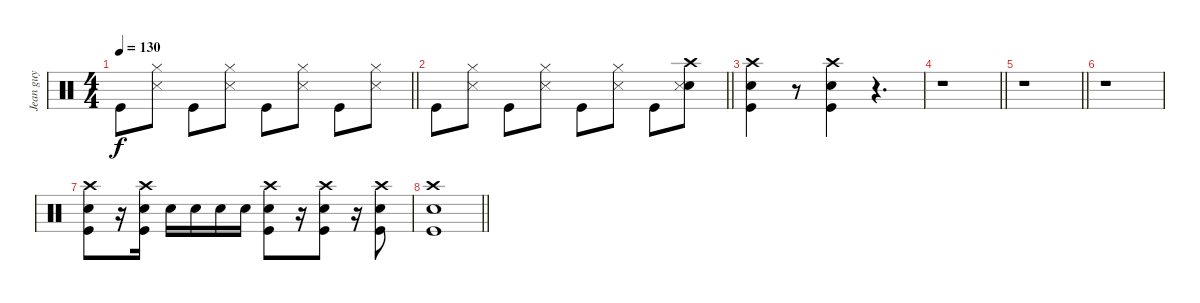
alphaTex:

\track ("Jean guy" "Jean guy") {instrument percussion}
\staff {score}
\articulation defaults
\ts (4 4)
\tempo 130
\clef neutral
\barLineRight lightlight
\ks c "Kick (hit)".8{dy f}
("Hi-Hat (closed)" "Snare (side stick) 3").8 "Kick (hit)".8 ("Hi-Hat (closed)" "Snare (side stick) 3").8 "Kick (hit)".8 ("Hi-Hat (closed)" "Snare (side stick) 3").8 "Kick (hit)".8 ("Hi-Hat (closed)" "Snare (side stick) 3").8 |
\barLineRight lightlight "Kick (hit)".8
("Hi-Hat (closed)" "Snare (side stick) 3").8 "Kick (hit)".8 ("Hi-Hat (closed)" "Snare (side stick) 3").8 "Kick (hit)".8 ("Hi-Hat (closed)" "Snare (side stick) 3").8 "Kick (hit)".8 ("Electric Snare (hit)" "Crash high (hit)" "Snare (side stick) 3").8 |
("Crash high (hit)" "Electric Snare (hit)" "Kick (hit)").4 r.8 ("Crash high (hit)" "Electric Snare (hit)" "Kick (hit)").4 r.4{d} |
\barLineRight lightlight
r.1 |
\barLineRight lightlight
r.1 |
r.1 |
("Crash high (hit)" "Electric Snare (hit)" "Kick (hit)").8 r.16 ("Crash high (hit)" "Electric Snare (hit)" "Kick (hit)").16 "Electric Snare (hit)".16 "Electric Snare (hit)".16 "Electric Snare (hit)".16 "Electric Snare (hit)".16 ("Crash high (hit)" "Electric Snare (hit)" "Kick (hit)").8 r.16 ("Crash high (hit)" "Electric Snare (hit)" "Kick (hit)").8 r.16 ("Crash high (hit)" "Electric Snare (hit)" "Kick (hit)").8 |
\barLineRight lightlight
("Kick (hit)" "Crash high (hit)" "Electric Snare (hit)").1
